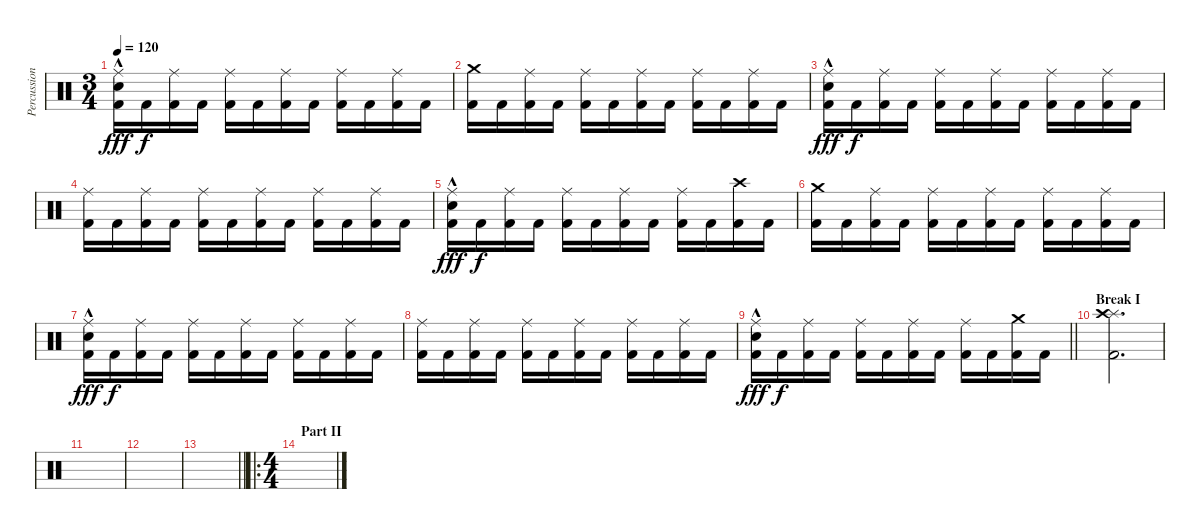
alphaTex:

\track ("Percussion" "Percussion") {instrument percussion}
\staff {score}
\articulation defaults
\ts (3 4)
\tempo 120
\clef neutral
\ks c
("Electric Snare (hit)"{hac} "Ride (middle)" "Kick (hit) 2").16{dy fff} "Kick (hit) 2".16{dy f} ("Ride (middle)" "Kick (hit) 2").16 "Kick (hit) 2".16 ("Ride (middle)" "Kick (hit) 2").16 "Kick (hit) 2".16 ("Ride (middle)" "Kick (hit) 2").16 "Kick (hit) 2".16 ("Ride (middle)" "Kick (hit) 2").16 "Kick (hit) 2".16 ("Ride (middle)" "Kick (hit) 2").16 "Kick (hit) 2".16 |
("Crash medium (hit)" "Kick (hit) 2").16 "Kick (hit) 2".16 ("Ride (middle)" "Kick (hit) 2").16 "Kick (hit) 2".16 ("Ride (middle)" "Kick (hit) 2").16 "Kick (hit) 2".16 ("Ride (middle)" "Kick (hit) 2").16 "Kick (hit) 2".16 ("Ride (middle)" "Kick (hit) 2").16 "Kick (hit) 2".16 ("Ride (middle)" "Kick (hit) 2").16 "Kick (hit) 2".16 |
("Electric Snare (hit)"{hac} "Ride (middle)" "Kick (hit) 2").16{dy fff} "Kick (hit) 2".16{dy f} ("Ride (middle)" "Kick (hit) 2").16 "Kick (hit) 2".16 ("Ride (middle)" "Kick (hit) 2").16 "Kick (hit) 2".16 ("Ride (middle)" "Kick (hit) 2").16 "Kick (hit) 2".16 ("Ride (middle)" "Kick (hit) 2").16 "Kick (hit) 2".16 ("Ride (middle)" "Kick (hit) 2").16 "Kick (hit) 2".16 |
("Ride (middle)" "Kick (hit) 2").16 "Kick (hit) 2".16 ("Ride (middle)" "Kick (hit) 2").16 "Kick (hit) 2".16 ("Ride (middle)" "Kick (hit) 2").16 "Kick (hit) 2".16 ("Ride (middle)" "Kick (hit) 2").16 "Kick (hit) 2".16 ("Ride (middle)" "Kick (hit) 2").16 "Kick (hit) 2".16 ("Ride (middle)" "Kick (hit) 2").16 "Kick (hit) 2".16 |
("Electric Snare (hit)"{hac} "Ride (middle)" "Kick (hit) 2").16{dy fff} "Kick (hit) 2".16{dy f} ("Ride (middle)" "Kick (hit) 2").16 "Kick (hit) 2".16 ("Ride (middle)" "Kick (hit) 2").16 "Kick (hit) 2".16 ("Ride (middle)" "Kick (hit) 2").16 "Kick (hit) 2".16 ("Ride (middle)" "Kick (hit) 2").16 "Kick (hit) 2".16 ("Crash high (hit)" "Kick (hit) 2").16 "Kick (hit) 2".16 |
("Crash medium (hit)" "Kick (hit) 2").16 "Kick (hit) 2".16 ("Ride (middle)" "Kick (hit) 2").16 "Kick (hit) 2".16 ("Ride (middle)" "Kick (hit) 2").16 "Kick (hit) 2".16 ("Ride (middle)" "Kick (hit) 2").16 "Kick (hit) 2".16 ("Ride (middle)" "Kick (hit) 2").16 "Kick (hit) 2".16 ("Ride (middle)" "Kick (hit) 2").16 "Kick (hit) 2".16 |
("Electric Snare (hit)"{hac} "Ride (middle)" "Kick (hit) 2").16{dy fff} "Kick (hit) 2".16{dy f} ("Ride (middle)" "Kick (hit) 2").16 "Kick (hit) 2".16 ("Ride (middle)" "Kick (hit) 2").16 "Kick (hit) 2".16 ("Ride (middle)" "Kick (hit) 2").16 "Kick (hit) 2".16 ("Ride (middle)" "Kick (hit) 2").16 "Kick (hit) 2".16 ("Ride (middle)" "Kick (hit) 2").16 "Kick (hit) 2".16 |
("Ride (middle)" "Kick (hit) 2").16 "Kick (hit) 2".16 ("Ride (middle)" "Kick (hit) 2").16 "Kick (hit) 2".16 ("Ride (middle)" "Kick (hit) 2").16 "Kick (hit) 2".16 ("Ride (middle)" "Kick (hit) 2").16 "Kick (hit) 2".16 ("Ride (middle)" "Kick (hit) 2").16 "Kick (hit) 2".16 ("Ride (middle)" "Kick (hit) 2").16 "Kick (hit) 2".16 |
\barLineRight lightlight
("Electric Snare (hit)"{hac} "Ride (middle)" "Kick (hit) 2").16{dy fff} "Kick (hit) 2".16{dy f} ("Ride (middle)" "Kick (hit) 2").16 "Kick (hit) 2".16 ("Ride (middle)" "Kick (hit) 2").16 "Kick (hit) 2".16 ("Ride (middle)" "Kick (hit) 2").16 "Kick (hit) 2".16 ("Ride (middle)" "Kick (hit) 2").16 "Kick (hit) 2".16 ("Crash medium (hit)" "Kick (hit) 2").16 "Kick (hit) 2".16 |
\section ("" "Break I")
("Splash (hit)" "Crash high (hit)" "Kick (hit) 2").2{d} |
|
|
\barLineRight lightlight
|
\ro
\ts (4 4)
\section ("" "Part II")
